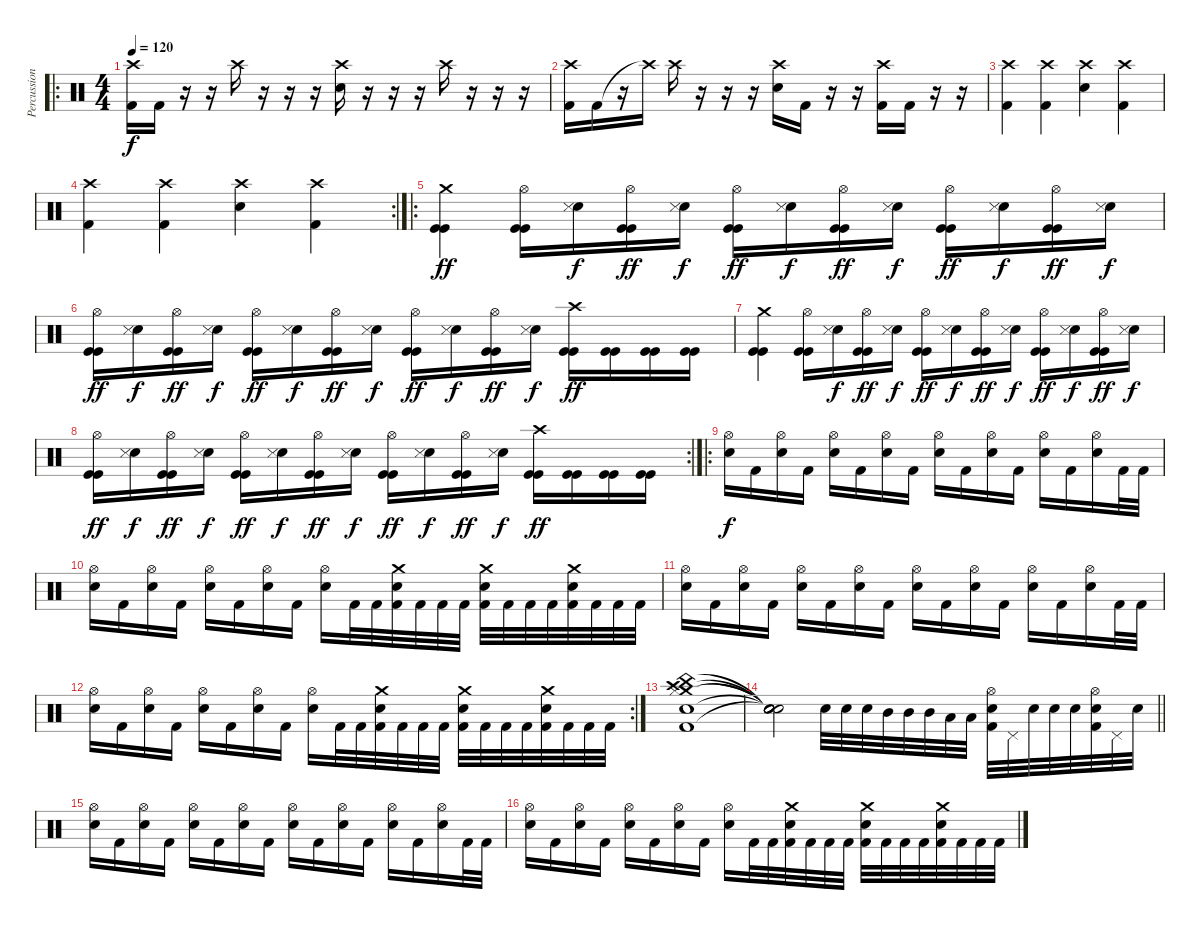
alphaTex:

\track ("Percussions" "Percussion") {instrument percussion}
\staff {score}
\articulation defaults
\ro
\ts (4 4)
\tempo 120
\clef neutral
\ks c
("Crash high (hit)" "Kick (hit) 2").16{dy f} "Kick (hit) 2".16 r.16 r.16 "Crash high (hit)".16 r.16 r.16 r.16 ("Crash high (hit)" "Snare (hit) 2").16 r.16 r.16 r.16 "Crash high (hit)".16 r.16 r.16 r.16 |
("Crash high (hit)" "Kick (hit) 2").16 "Kick (hit) 2".16 r.16 "Crash high (hit)"{t}.16 "Crash high (hit)".16 r.16 r.16 r.16 ("Crash high (hit)" "Snare (hit) 2").16 "Kick (hit) 2".16 r.16 r.16 ("Crash high (hit)" "Kick (hit) 2").16 "Kick (hit) 2".16 r.16 r.16 |
("Crash high (hit)" "Kick (hit) 2").4 ("Crash high (hit)" "Kick (hit) 2").4 ("Crash high (hit)" "Electric Snare (hit)").4 ("Crash high (hit)" "Kick (hit) 2").4 |
\rc 2
("Crash high (hit)" "Kick (hit) 2").4 ("Crash high (hit)" "Kick (hit) 2").4 ("Crash high (hit)" "Electric Snare (hit)").4 ("Crash high (hit)" "Kick (hit) 2").4 |
\ro
("Crash medium (hit)" "Kick (hit)" "Kick (hit)").4{dy ff} ("Hi-Hat (open)" "Kick (hit)" "Kick (hit)").16 ("Electric Snare (hit)" "Snare (side stick) 3").16{dy f} ("Hi-Hat (open)" "Kick (hit)" "Kick (hit)").16{dy ff} ("Electric Snare (hit)" "Snare (side stick) 3").16{dy f} ("Hi-Hat (open)" "Kick (hit)" "Kick (hit)").16{dy ff} ("Electric Snare (hit)" "Snare (side stick) 3").16{dy f} ("Hi-Hat (open)" "Kick (hit)" "Kick (hit)").16{dy ff} ("Electric Snare (hit)" "Snare (side stick) 3").16{dy f} ("Hi-Hat (open)" "Kick (hit)" "Kick (hit)").16{dy ff} ("Electric Snare (hit)" "Snare (side stick) 3").16{dy f} ("Hi-Hat (open)" "Kick (hit)" "Kick (hit)").16{dy ff} ("Electric Snare (hit)" "Snare (side stick) 3").16{dy f} |
("Hi-Hat (open)" "Kick (hit)" "Kick (hit)").16{dy ff} ("Electric Snare (hit)" "Snare (side stick) 3").16{dy f} ("Hi-Hat (open)" "Kick (hit)" "Kick (hit)").16{dy ff} ("Electric Snare (hit)" "Snare (side stick) 3").16{dy f} ("Hi-Hat (open)" "Kick (hit)" "Kick (hit)").16{dy ff} ("Electric Snare (hit)" "Snare (side stick) 3").16{dy f} ("Hi-Hat (open)" "Kick (hit)" "Kick (hit)").16{dy ff} ("Electric Snare (hit)" "Snare (side stick) 3").16{dy f} ("Hi-Hat (open)" "Kick (hit)" "Kick (hit)").16{dy ff} ("Electric Snare (hit)" "Snare (side stick) 3").16{dy f} ("Hi-Hat (open)" "Kick (hit)" "Kick (hit)").16{dy ff} ("Electric Snare (hit)" "Snare (side stick) 3").16{dy f} ("Crash high (hit)" "Kick (hit)" "Kick (hit)").16{dy ff} ("Kick (hit)" "Kick (hit)").16 ("Kick (hit)" "Kick (hit)").16 ("Kick (hit)" "Kick (hit)").16 |
("Crash medium (hit)" "Kick (hit)" "Kick (hit)").4 ("Hi-Hat (open)" "Kick (hit)" "Kick (hit)").16 ("Electric Snare (hit)" "Snare (side stick) 3").16{dy f} ("Hi-Hat (open)" "Kick (hit)" "Kick (hit)").16{dy ff} ("Electric Snare (hit)" "Snare (side stick) 3").16{dy f} ("Hi-Hat (open)" "Kick (hit)" "Kick (hit)").16{dy ff} ("Electric Snare (hit)" "Snare (side stick) 3").16{dy f} ("Hi-Hat (open)" "Kick (hit)" "Kick (hit)").16{dy ff} ("Electric Snare (hit)" "Snare (side stick) 3").16{dy f} ("Hi-Hat (open)" "Kick (hit)" "Kick (hit)").16{dy ff} ("Electric Snare (hit)" "Snare (side stick) 3").16{dy f} ("Hi-Hat (open)" "Kick (hit)" "Kick (hit)").16{dy ff} ("Electric Snare (hit)" "Snare (side stick) 3").16{dy f} |
\rc 2
("Hi-Hat (open)" "Kick (hit)" "Kick (hit)").16{dy ff} ("Electric Snare (hit)" "Snare (side stick) 3").16{dy f} ("Hi-Hat (open)" "Kick (hit)" "Kick (hit)").16{dy ff} ("Electric Snare (hit)" "Snare (side stick) 3").16{dy f} ("Hi-Hat (open)" "Kick (hit)" "Kick (hit)").16{dy ff} ("Electric Snare (hit)" "Snare (side stick) 3").16{dy f} ("Hi-Hat (open)" "Kick (hit)" "Kick (hit)").16{dy ff} ("Electric Snare (hit)" "Snare (side stick) 3").16{dy f} ("Hi-Hat (open)" "Kick (hit)" "Kick (hit)").16{dy ff} ("Electric Snare (hit)" "Snare (side stick) 3").16{dy f} ("Hi-Hat (open)" "Kick (hit)" "Kick (hit)").16{dy ff} ("Electric Snare (hit)" "Snare (side stick) 3").16{dy f} ("Crash high (hit)" "Kick (hit)" "Kick (hit)").16{dy ff} ("Kick (hit)" "Kick (hit)").16 ("Kick (hit)" "Kick (hit)").16 ("Kick (hit)" "Kick (hit)").16 |
\ro
("Hi-Hat (open)" "Snare (hit) 2").16{dy f} "Kick (hit) 2".16 ("Hi-Hat (open)" "Snare (hit) 2").16 "Kick (hit) 2".16 ("Hi-Hat (open)" "Snare (hit) 2").16 "Kick (hit) 2".16 ("Hi-Hat (open)" "Snare (hit) 2").16 "Kick (hit) 2".16 ("Hi-Hat (open)" "Snare (hit) 2").16 "Kick (hit) 2".16 ("Hi-Hat (open)" "Snare (hit) 2").16 "Kick (hit) 2".16 ("Hi-Hat (open)" "Snare (hit) 2").16 "Kick (hit) 2".16 ("Hi-Hat (open)" "Snare (hit) 2").16 "Kick (hit) 2".32 "Kick (hit) 2".32 |
("Hi-Hat (open)" "Snare (hit) 2").16 "Kick (hit) 2".16 ("Hi-Hat (open)" "Snare (hit) 2").16 "Kick (hit) 2".16 ("Hi-Hat (open)" "Snare (hit) 2").16 "Kick (hit) 2".16 ("Hi-Hat (open)" "Snare (hit) 2").16 "Kick (hit) 2".16 ("Hi-Hat (open)" "Snare (hit) 2").16 "Kick (hit) 2".32 "Kick (hit) 2".32 ("Crash medium (hit)" "Snare (hit) 2" "Kick (hit) 2").32 "Kick (hit) 2".32 "Kick (hit) 2".32 "Kick (hit) 2".32 ("Crash medium (hit)" "Snare (hit) 2" "Kick (hit) 2").32 "Kick (hit) 2".32 "Kick (hit) 2".32 "Kick (hit) 2".32 ("Crash medium (hit)" "Snare (hit) 2" "Kick (hit) 2").32 "Kick (hit) 2".32 "Kick (hit) 2".32 "Kick (hit) 2".32 |
("Hi-Hat (open)" "Snare (hit) 2").16 "Kick (hit) 2".16 ("Hi-Hat (open)" "Snare (hit) 2").16 "Kick (hit) 2".16 ("Hi-Hat (open)" "Snare (hit) 2").16 "Kick (hit) 2".16 ("Hi-Hat (open)" "Snare (hit) 2").16 "Kick (hit) 2".16 ("Hi-Hat (open)" "Snare (hit) 2").16 "Kick (hit) 2".16 ("Hi-Hat (open)" "Snare (hit) 2").16 "Kick (hit) 2".16 ("Hi-Hat (open)" "Snare (hit) 2").16 "Kick (hit) 2".16 ("Hi-Hat (open)" "Snare (hit) 2").16 "Kick (hit) 2".32 "Kick (hit) 2".32 |
\rc 2
("Hi-Hat (open)" "Snare (hit) 2").16 "Kick (hit) 2".16 ("Hi-Hat (open)" "Snare (hit) 2").16 "Kick (hit) 2".16 ("Hi-Hat (open)" "Snare (hit) 2").16 "Kick (hit) 2".16 ("Hi-Hat (open)" "Snare (hit) 2").16 "Kick (hit) 2".16 ("Hi-Hat (open)" "Snare (hit) 2").16 "Kick (hit) 2".32 "Kick (hit) 2".32 ("Crash medium (hit)" "Snare (hit) 2" "Kick (hit) 2").32 "Kick (hit) 2".32 "Kick (hit) 2".32 "Kick (hit) 2".32 ("Crash medium (hit)" "Snare (hit) 2" "Kick (hit) 2").32 "Kick (hit) 2".32 "Kick (hit) 2".32 "Kick (hit) 2".32 ("Crash medium (hit)" "Snare (hit) 2" "Kick (hit) 2").32 "Kick (hit) 2".32 "Kick (hit) 2".32 "Kick (hit) 2".32 |
("China (hit)" "Crash medium (hit)" "Crash high (hit)" "Hi-Hat (closed)" "Electric Snare (hit)" "Kick (hit) 2").1 |
\barLineRight lightlight
("Snare (hit)"{t} "Snare (hit)"{t} "Snare (hit)"{t} "Snare (hit)"{t} "Snare (hit)"{t} "Snare (hit)"{t}).2 "Electric Snare (hit)".32 "Electric Snare (hit)".32 "Electric Snare (hit)".32 "Mid Tom (hit)".32 "Mid Tom (hit)".32 "Mid Tom (hit)".32 "Low Tom (hit)".32 "Low Tom (hit)".32 ("Hi-Hat (open)" "Electric Snare (hit)" "Kick (hit) 2").32 "Pedal Hi-Hat (hit)".32 "Electric Snare (hit)".32 "Electric Snare (hit)".32 "Electric Snare (hit)".32 ("Hi-Hat (open)" "Electric Snare (hit)" "Kick (hit) 2").32 "Pedal Hi-Hat (hit)".32 "Electric Snare (hit)".32 |
("Hi-Hat (open)" "Snare (hit) 2").16 "Kick (hit) 2".16 ("Hi-Hat (open)" "Snare (hit) 2").16 "Kick (hit) 2".16 ("Hi-Hat (open)" "Snare (hit) 2").16 "Kick (hit) 2".16 ("Hi-Hat (open)" "Snare (hit) 2").16 "Kick (hit) 2".16 ("Hi-Hat (open)" "Snare (hit) 2").16 "Kick (hit) 2".16 ("Hi-Hat (open)" "Snare (hit) 2").16 "Kick (hit) 2".16 ("Hi-Hat (open)" "Snare (hit) 2").16 "Kick (hit) 2".16 ("Hi-Hat (open)" "Snare (hit) 2").16 "Kick (hit) 2".32 "Kick (hit) 2".32 |
("Hi-Hat (open)" "Snare (hit) 2").16 "Kick (hit) 2".16 ("Hi-Hat (open)" "Snare (hit) 2").16 "Kick (hit) 2".16 ("Hi-Hat (open)" "Snare (hit) 2").16 "Kick (hit) 2".16 ("Hi-Hat (open)" "Snare (hit) 2").16 "Kick (hit) 2".16 ("Hi-Hat (open)" "Snare (hit) 2").16 "Kick (hit) 2".32 "Kick (hit) 2".32 ("Crash medium (hit)" "Snare (hit) 2" "Kick (hit) 2").32 "Kick (hit) 2".32 "Kick (hit) 2".32 "Kick (hit) 2".32 ("Crash medium (hit)" "Snare (hit) 2" "Kick (hit) 2").32 "Kick (hit) 2".32 "Kick (hit) 2".32 "Kick (hit) 2".32 ("Crash medium (hit)" "Snare (hit) 2" "Kick (hit) 2").32 "Kick (hit) 2".32 "Kick (hit) 2".32 "Kick (hit) 2".32
